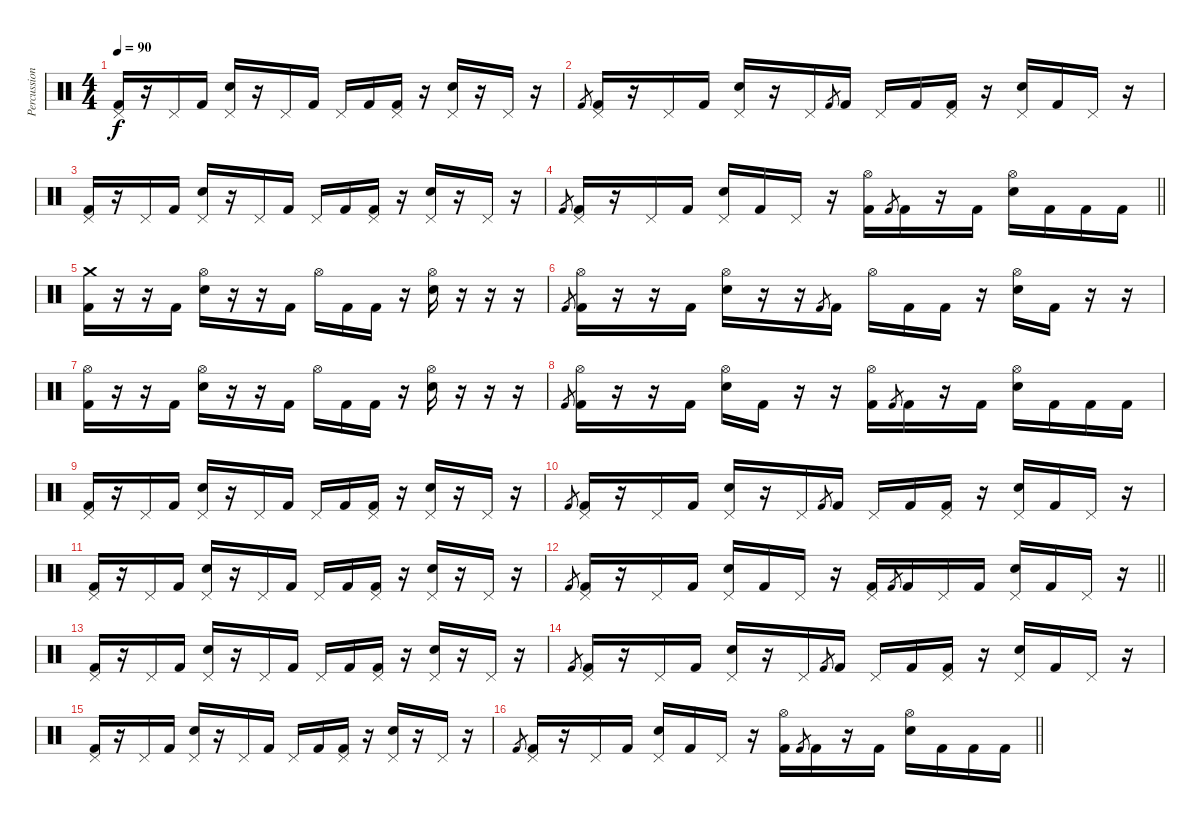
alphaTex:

\track ("Percussion" "Percussion") {instrument percussion}
\staff {score}
\articulation defaults
\ts (4 4)
\tempo 90
\clef neutral
\ks c
("Pedal Hi-Hat (hit)" "Kick (hit) 2").16{dy f} r.16 "Pedal Hi-Hat (hit)".16 "Kick (hit) 2".16 ("Pedal Hi-Hat (hit)" "Snare (hit) 2").16 r.16 "Pedal Hi-Hat (hit)".16 "Kick (hit) 2".16 "Pedal Hi-Hat (hit)".16 "Kick (hit) 2".16 ("Pedal Hi-Hat (hit)" "Kick (hit) 2").16 r.16 ("Pedal Hi-Hat (hit)" "Snare (hit) 2").16 r.16 "Pedal Hi-Hat (hit)".16 r.16 |
"Kick (hit) 2".8{gr} ("Pedal Hi-Hat (hit)" "Kick (hit) 2").16 r.16 "Pedal Hi-Hat (hit)".16 "Kick (hit) 2".16 ("Pedal Hi-Hat (hit)" "Snare (hit) 2").16 r.16 "Pedal Hi-Hat (hit)".16 "Kick (hit) 2".8{gr} "Kick (hit) 2".16 "Pedal Hi-Hat (hit)".16 "Kick (hit) 2".16 ("Pedal Hi-Hat (hit)" "Kick (hit) 2").16 r.16 ("Pedal Hi-Hat (hit)" "Snare (hit) 2").16 "Kick (hit) 2".16 "Pedal Hi-Hat (hit)".16 r.16 |
("Pedal Hi-Hat (hit)" "Kick (hit) 2").16 r.16 "Pedal Hi-Hat (hit)".16 "Kick (hit) 2".16 ("Pedal Hi-Hat (hit)" "Snare (hit) 2").16 r.16 "Pedal Hi-Hat (hit)".16 "Kick (hit) 2".16 "Pedal Hi-Hat (hit)".16 "Kick (hit) 2".16 ("Pedal Hi-Hat (hit)" "Kick (hit) 2").16 r.16 ("Pedal Hi-Hat (hit)" "Snare (hit) 2").16 r.16 "Pedal Hi-Hat (hit)".16 r.16 |
\barLineRight lightlight "Kick (hit) 2".8{gr}
("Pedal Hi-Hat (hit)" "Kick (hit) 2").16 r.16 "Pedal Hi-Hat (hit)".16 "Kick (hit) 2".16 ("Pedal Hi-Hat (hit)" "Snare (hit) 2").16 "Kick (hit) 2".16 "Pedal Hi-Hat (hit)".16 r.16 ("Hi-Hat (open)" "Kick (hit) 2").16 "Kick (hit) 2".8{gr} "Kick (hit) 2".16 r.16 "Kick (hit) 2".16 ("Hi-Hat (open)" "Snare (hit) 2").16 "Kick (hit) 2".16 "Kick (hit) 2".16 "Kick (hit) 2".16 |
("Crash medium (hit)" "Kick (hit) 2").16 r.16 r.16 "Kick (hit) 2".16 ("Hi-Hat (open)" "Snare (hit) 2").16 r.16 r.16 "Kick (hit) 2".16 "Hi-Hat (open)".16 "Kick (hit) 2".16 "Kick (hit) 2".16 r.16 ("Hi-Hat (open)" "Snare (hit) 2").16 r.16 r.16 r.16 |
"Kick (hit) 2".8{gr} ("Hi-Hat (open)" "Kick (hit) 2").16 r.16 r.16 "Kick (hit) 2".16 ("Hi-Hat (open)" "Snare (hit) 2").16 r.16 r.16 "Kick (hit) 2".8{gr} "Kick (hit) 2".16 "Hi-Hat (open)".16 "Kick (hit) 2".16 "Kick (hit) 2".16 r.16 ("Hi-Hat (open)" "Snare (hit) 2").16 "Kick (hit) 2".16 r.16 r.16 |
("Hi-Hat (open)" "Kick (hit) 2").16 r.16 r.16 "Kick (hit) 2".16 ("Hi-Hat (open)" "Snare (hit) 2").16 r.16 r.16 "Kick (hit) 2".16 "Hi-Hat (open)".16 "Kick (hit) 2".16 "Kick (hit) 2".16 r.16 ("Hi-Hat (open)" "Snare (hit) 2").16 r.16 r.16 r.16 |
"Kick (hit) 2".8{gr} ("Hi-Hat (open)" "Kick (hit) 2").16 r.16 r.16 "Kick (hit) 2".16 ("Hi-Hat (open)" "Snare (hit) 2").16 "Kick (hit) 2".16 r.16 r.16 ("Hi-Hat (open)" "Kick (hit) 2").16 "Kick (hit) 2".8{gr} "Kick (hit) 2".16 r.16 "Kick (hit) 2".16 ("Hi-Hat (open)" "Snare (hit) 2").16 "Kick (hit) 2".16 "Kick (hit) 2".16 "Kick (hit) 2".16 |
("Pedal Hi-Hat (hit)" "Kick (hit) 2").16 r.16 "Pedal Hi-Hat (hit)".16 "Kick (hit) 2".16 ("Pedal Hi-Hat (hit)" "Snare (hit) 2").16 r.16 "Pedal Hi-Hat (hit)".16 "Kick (hit) 2".16 "Pedal Hi-Hat (hit)".16 "Kick (hit) 2".16 ("Pedal Hi-Hat (hit)" "Kick (hit) 2").16 r.16 ("Pedal Hi-Hat (hit)" "Snare (hit) 2").16 r.16 "Pedal Hi-Hat (hit)".16 r.16 |
"Kick (hit) 2".8{gr} ("Pedal Hi-Hat (hit)" "Kick (hit) 2").16 r.16 "Pedal Hi-Hat (hit)".16 "Kick (hit) 2".16 ("Pedal Hi-Hat (hit)" "Snare (hit) 2").16 r.16 "Pedal Hi-Hat (hit)".16 "Kick (hit) 2".8{gr} "Kick (hit) 2".16 "Pedal Hi-Hat (hit)".16 "Kick (hit) 2".16 ("Pedal Hi-Hat (hit)" "Kick (hit) 2").16 r.16 ("Pedal Hi-Hat (hit)" "Snare (hit) 2").16 "Kick (hit) 2".16 "Pedal Hi-Hat (hit)".16 r.16 |
("Pedal Hi-Hat (hit)" "Kick (hit) 2").16 r.16 "Pedal Hi-Hat (hit)".16 "Kick (hit) 2".16 ("Pedal Hi-Hat (hit)" "Snare (hit) 2").16 r.16 "Pedal Hi-Hat (hit)".16 "Kick (hit) 2".16 "Pedal Hi-Hat (hit)".16 "Kick (hit) 2".16 ("Pedal Hi-Hat (hit)" "Kick (hit) 2").16 r.16 ("Pedal Hi-Hat (hit)" "Snare (hit) 2").16 r.16 "Pedal Hi-Hat (hit)".16 r.16 |
\barLineRight lightlight "Kick (hit) 2".8{gr}
("Pedal Hi-Hat (hit)" "Kick (hit) 2").16 r.16 "Pedal Hi-Hat (hit)".16 "Kick (hit) 2".16 ("Pedal Hi-Hat (hit)" "Snare (hit) 2").16 "Kick (hit) 2".16 "Pedal Hi-Hat (hit)".16 r.16 ("Pedal Hi-Hat (hit)" "Kick (hit) 2").16 "Kick (hit) 2".8{gr} "Kick (hit) 2".16 "Pedal Hi-Hat (hit)".16 "Kick (hit) 2".16 ("Pedal Hi-Hat (hit)" "Snare (hit) 2").16 "Kick (hit) 2".16 "Pedal Hi-Hat (hit)".16 r.16 |
("Pedal Hi-Hat (hit)" "Kick (hit) 2").16 r.16 "Pedal Hi-Hat (hit)".16 "Kick (hit) 2".16 ("Pedal Hi-Hat (hit)" "Snare (hit) 2").16 r.16 "Pedal Hi-Hat (hit)".16 "Kick (hit) 2".16 "Pedal Hi-Hat (hit)".16 "Kick (hit) 2".16 ("Pedal Hi-Hat (hit)" "Kick (hit) 2").16 r.16 ("Pedal Hi-Hat (hit)" "Snare (hit) 2").16 r.16 "Pedal Hi-Hat (hit)".16 r.16 |
"Kick (hit) 2".8{gr} ("Pedal Hi-Hat (hit)" "Kick (hit) 2").16 r.16 "Pedal Hi-Hat (hit)".16 "Kick (hit) 2".16 ("Pedal Hi-Hat (hit)" "Snare (hit) 2").16 r.16 "Pedal Hi-Hat (hit)".16 "Kick (hit) 2".8{gr} "Kick (hit) 2".16 "Pedal Hi-Hat (hit)".16 "Kick (hit) 2".16 ("Pedal Hi-Hat (hit)" "Kick (hit) 2").16 r.16 ("Pedal Hi-Hat (hit)" "Snare (hit) 2").16 "Kick (hit) 2".16 "Pedal Hi-Hat (hit)".16 r.16 |
("Pedal Hi-Hat (hit)" "Kick (hit) 2").16 r.16 "Pedal Hi-Hat (hit)".16 "Kick (hit) 2".16 ("Pedal Hi-Hat (hit)" "Snare (hit) 2").16 r.16 "Pedal Hi-Hat (hit)".16 "Kick (hit) 2".16 "Pedal Hi-Hat (hit)".16 "Kick (hit) 2".16 ("Pedal Hi-Hat (hit)" "Kick (hit) 2").16 r.16 ("Pedal Hi-Hat (hit)" "Snare (hit) 2").16 r.16 "Pedal Hi-Hat (hit)".16 r.16 |
\barLineRight lightlight "Kick (hit) 2".8{gr}
("Pedal Hi-Hat (hit)" "Kick (hit) 2").16 r.16 "Pedal Hi-Hat (hit)".16 "Kick (hit) 2".16 ("Pedal Hi-Hat (hit)" "Snare (hit) 2").16 "Kick (hit) 2".16 "Pedal Hi-Hat (hit)".16 r.16 ("Hi-Hat (open)" "Kick (hit) 2").16 "Kick (hit) 2".8{gr} "Kick (hit) 2".16 r.16 "Kick (hit) 2".16 ("Hi-Hat (open)" "Snare (hit) 2").16 "Kick (hit) 2".16 "Kick (hit) 2".16 "Kick (hit) 2".16
